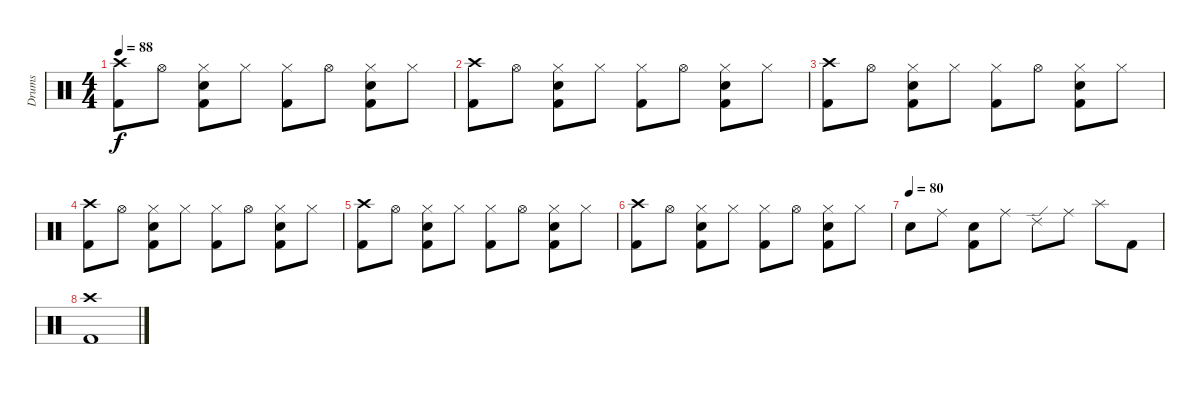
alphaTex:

\track ("Drums" "Drums") {instrument percussion}
\staff {score}
\articulation defaults
\ts (4 4)
\tempo 88
\clef neutral
\ks c
("Crash high (hit)" "Kick (hit) 2").8{dy f} "Hi-Hat (open)".8 ("Hi-Hat (closed)" "Snare (hit) 2" "Kick (hit) 2").8 "Hi-Hat (closed)".8 ("Hi-Hat (closed)" "Kick (hit) 2").8 "Hi-Hat (open)".8 ("Hi-Hat (closed)" "Snare (hit) 2" "Kick (hit) 2").8 "Hi-Hat (closed)".8 |
("Crash high (hit)" "Kick (hit) 2").8 "Hi-Hat (open)".8 ("Hi-Hat (closed)" "Snare (hit) 2" "Kick (hit) 2").8 "Hi-Hat (closed)".8 ("Hi-Hat (closed)" "Kick (hit) 2").8 "Hi-Hat (open)".8 ("Hi-Hat (closed)" "Snare (hit) 2" "Kick (hit) 2").8 "Hi-Hat (closed)".8 |
("Crash high (hit)" "Kick (hit) 2").8 "Hi-Hat (open)".8 ("Hi-Hat (closed)" "Snare (hit) 2" "Kick (hit) 2").8 "Hi-Hat (closed)".8 ("Hi-Hat (closed)" "Kick (hit) 2").8 "Hi-Hat (open)".8 ("Hi-Hat (closed)" "Snare (hit) 2" "Kick (hit) 2").8 "Hi-Hat (closed)".8 |
("Crash high (hit)" "Kick (hit) 2").8 "Hi-Hat (open)".8 ("Hi-Hat (closed)" "Snare (hit) 2" "Kick (hit) 2").8 "Hi-Hat (closed)".8 ("Hi-Hat (closed)" "Kick (hit) 2").8 "Hi-Hat (open)".8 ("Hi-Hat (closed)" "Snare (hit) 2" "Kick (hit) 2").8 "Hi-Hat (closed)".8 |
("Crash high (hit)" "Kick (hit) 2").8 "Hi-Hat (open)".8 ("Hi-Hat (closed)" "Snare (hit) 2" "Kick (hit) 2").8 "Hi-Hat (closed)".8 ("Hi-Hat (closed)" "Kick (hit) 2").8 "Hi-Hat (open)".8 ("Hi-Hat (closed)" "Snare (hit) 2" "Kick (hit) 2").8 "Hi-Hat (closed)".8 |
("Crash high (hit)" "Kick (hit) 2").8 "Hi-Hat (open)".8 ("Hi-Hat (closed)" "Snare (hit) 2" "Kick (hit) 2").8 "Hi-Hat (closed)".8 ("Hi-Hat (closed)" "Kick (hit) 2").8 "Hi-Hat (open)".8 ("Hi-Hat (closed)" "Snare (hit) 2" "Kick (hit) 2").8 "Hi-Hat (closed)".8 |
\tempo 44
\tempo (80)
"Snare (hit) 2".8 "Ride (middle)".8 ("Snare (hit) 2" "Kick (hit) 2").8 "Ride (middle)".8 "Ride (edge) 2".8 "Ride (middle)".8 "Splash (hit)".8 "Kick (hit) 2".8 |
("Crash high (hit)" "Kick (hit) 2").1
